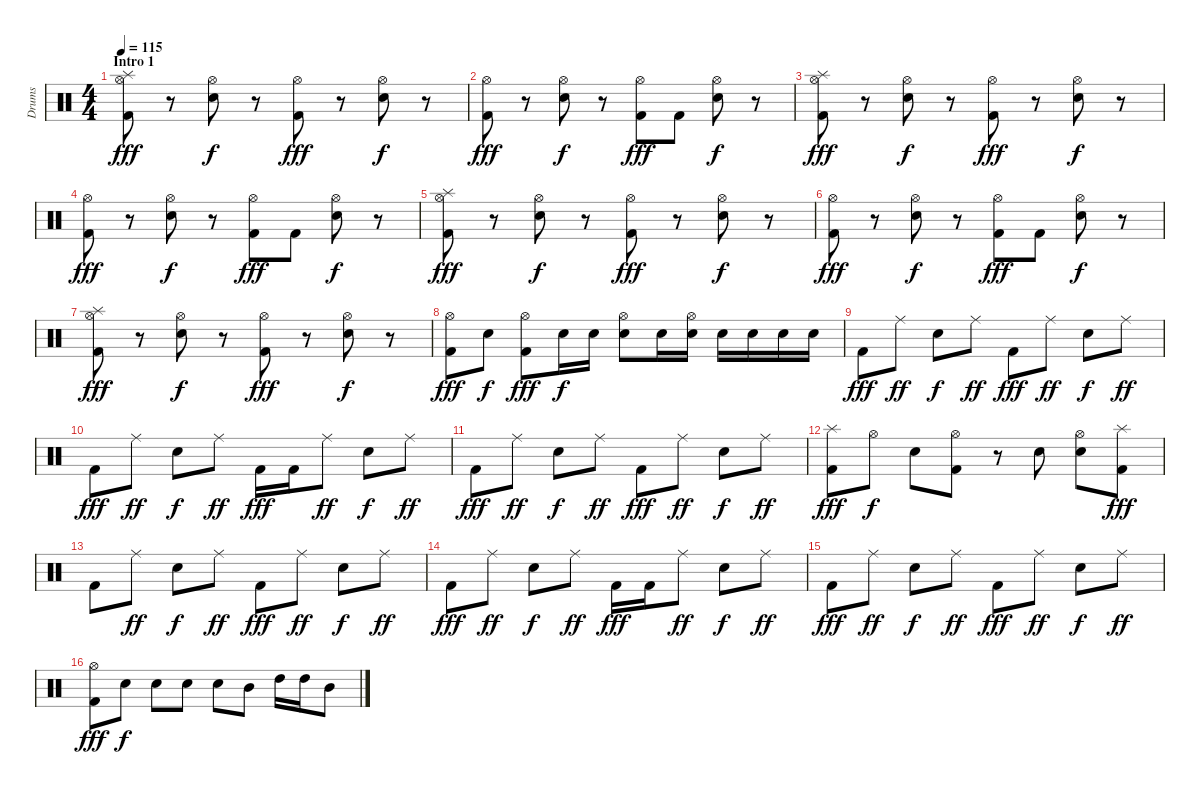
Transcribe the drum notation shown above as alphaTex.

\track ("Drums" "Drums") {instrument percussion}
\staff {score}
\articulation defaults
\ts (4 4)
\section ("" "Intro 1")
\tempo 115
\clef neutral
\ks c
("Hi-Hat (open)" "Splash (hit)" "Kick (hit) 2").8{dy fff} r.8 ("Hi-Hat (open)" "Snare (hit) 2").8{dy f} r.8 ("Hi-Hat (open)" "Kick (hit) 2").8{dy fff} r.8 ("Hi-Hat (open)" "Snare (hit) 2").8{dy f} r.8 |
("Hi-Hat (open)" "Kick (hit) 2").8{dy fff} r.8 ("Hi-Hat (open)" "Snare (hit) 2").8{dy f} r.8 ("Hi-Hat (open)" "Kick (hit) 2").8{dy fff} "Kick (hit) 2".8 ("Hi-Hat (open)" "Snare (hit) 2").8{dy f} r.8 |
("Hi-Hat (open)" "Splash (hit)" "Kick (hit) 2").8{dy fff} r.8 ("Hi-Hat (open)" "Snare (hit) 2").8{dy f} r.8 ("Hi-Hat (open)" "Kick (hit) 2").8{dy fff} r.8 ("Hi-Hat (open)" "Snare (hit) 2").8{dy f} r.8 |
("Hi-Hat (open)" "Kick (hit) 2").8{dy fff} r.8 ("Hi-Hat (open)" "Snare (hit) 2").8{dy f} r.8 ("Hi-Hat (open)" "Kick (hit) 2").8{dy fff} "Kick (hit) 2".8 ("Hi-Hat (open)" "Snare (hit) 2").8{dy f} r.8 |
("Hi-Hat (open)" "Splash (hit)" "Kick (hit) 2").8{dy fff} r.8 ("Hi-Hat (open)" "Snare (hit) 2").8{dy f} r.8 ("Hi-Hat (open)" "Kick (hit) 2").8{dy fff} r.8 ("Hi-Hat (open)" "Snare (hit) 2").8{dy f} r.8 |
("Hi-Hat (open)" "Kick (hit) 2").8{dy fff} r.8 ("Hi-Hat (open)" "Snare (hit) 2").8{dy f} r.8 ("Hi-Hat (open)" "Kick (hit) 2").8{dy fff} "Kick (hit) 2".8 ("Hi-Hat (open)" "Snare (hit) 2").8{dy f} r.8 |
("Hi-Hat (open)" "Splash (hit)" "Kick (hit) 2").8{dy fff} r.8 ("Hi-Hat (open)" "Snare (hit) 2").8{dy f} r.8 ("Hi-Hat (open)" "Kick (hit) 2").8{dy fff} r.8 ("Hi-Hat (open)" "Snare (hit) 2").8{dy f} r.8 |
("Hi-Hat (open)" "Kick (hit) 2").8{dy fff} "Snare (hit) 2".8{dy f} ("Hi-Hat (open)" "Kick (hit) 2").8{dy fff} "Snare (hit) 2".16{dy f} "Snare (hit) 2".16 ("Hi-Hat (open)" "Snare (hit) 2").8 "Snare (hit) 2".16 ("Hi-Hat (open)" "Snare (hit) 2").16 "Snare (hit) 2".16 "Snare (hit) 2".16 "Snare (hit) 2".16 "Snare (hit) 2".16 |
"Kick (hit) 2".8{dy fff} "Ride (middle)".8{dy ff} "Snare (hit) 2".8{dy f} "Ride (middle)".8{dy ff} "Kick (hit) 2".8{dy fff} "Ride (middle)".8{dy ff} "Snare (hit) 2".8{dy f} "Ride (middle)".8{dy ff} |
"Kick (hit) 2".8{dy fff} "Ride (middle)".8{dy ff} "Snare (hit) 2".8{dy f} "Ride (middle)".8{dy ff} "Kick (hit) 2".16{dy fff} "Kick (hit) 2".16 "Ride (middle)".8{dy ff} "Snare (hit) 2".8{dy f} "Ride (middle)".8{dy ff} |
"Kick (hit) 2".8{dy fff} "Ride (middle)".8{dy ff} "Snare (hit) 2".8{dy f} "Ride (middle)".8{dy ff} "Kick (hit) 2".8{dy fff} "Ride (middle)".8{dy ff} "Snare (hit) 2".8{dy f} "Ride (middle)".8{dy ff} |
("Splash (hit)" "Kick (hit) 2").8{dy fff} "Hi-Hat (open)".8{dy f} "Snare (hit) 2".8 ("Hi-Hat (open)" "Kick (hit) 2").8 r.8 "Snare (hit) 2".8 ("Hi-Hat (open)" "Snare (hit) 2").8 ("Splash (hit)" "Kick (hit) 2").8{dy fff} |
"Kick (hit) 2".8 "Ride (middle)".8{dy ff} "Snare (hit) 2".8{dy f} "Ride (middle)".8{dy ff} "Kick (hit) 2".8{dy fff} "Ride (middle)".8{dy ff} "Snare (hit) 2".8{dy f} "Ride (middle)".8{dy ff} |
"Kick (hit) 2".8{dy fff} "Ride (middle)".8{dy ff} "Snare (hit) 2".8{dy f} "Ride (middle)".8{dy ff} "Kick (hit) 2".16{dy fff} "Kick (hit) 2".16 "Ride (middle)".8{dy ff} "Snare (hit) 2".8{dy f} "Ride (middle)".8{dy ff} |
"Kick (hit) 2".8{dy fff} "Ride (middle)".8{dy ff} "Snare (hit) 2".8{dy f} "Ride (middle)".8{dy ff} "Kick (hit) 2".8{dy fff} "Ride (middle)".8{dy ff} "Snare (hit) 2".8{dy f} "Ride (middle)".8{dy ff} |
("Hi-Hat (open)" "Kick (hit) 2").8{dy fff} "Snare (hit) 2".8{dy f} "Snare (hit) 2".8 "Snare (hit) 2".8 "Snare (hit) 2".8 "Mid Tom (hit)".8 "High Tom (hit)".16 "High Tom (hit)".16 "Mid Tom (hit)".8
